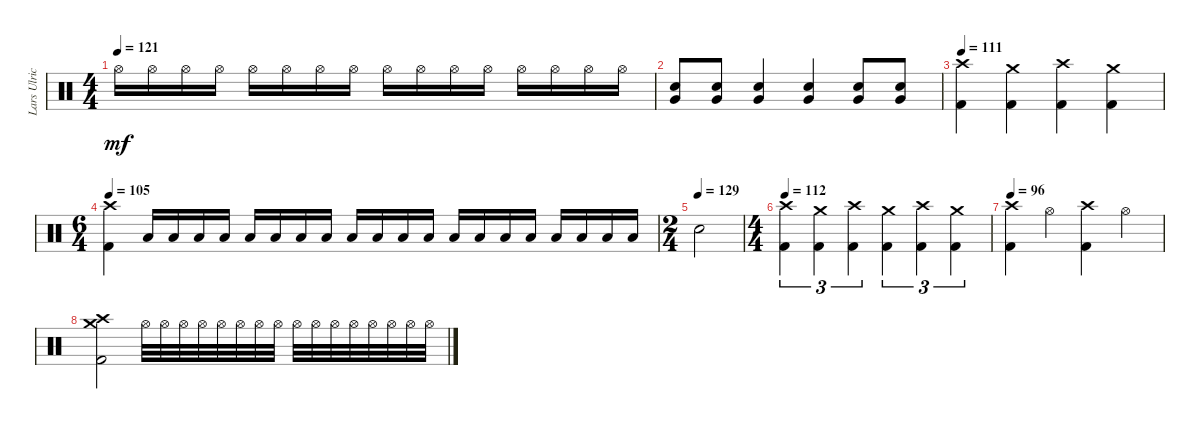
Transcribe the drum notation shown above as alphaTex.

\track ("Lars Ulrich" "Lars Ulric") {instrument percussion}
\staff {score}
\articulation defaults
\ts (4 4)
\tempo 121
\clef neutral
\ks c "Hi-Hat (open)".16{dy mf} "Hi-Hat (open)".16 "Hi-Hat (open)".16 "Hi-Hat (open)".16 "Hi-Hat (open)".16 "Hi-Hat (open)".16 "Hi-Hat (open)".16 "Hi-Hat (open)".16 "Hi-Hat (open)".16 "Hi-Hat (open)".16 "Hi-Hat (open)".16 "Hi-Hat (open)".16 "Hi-Hat (open)".16 "Hi-Hat (open)".16 "Hi-Hat (open)".16 "Hi-Hat (open)".16
|
("Snare (hit) 2" "Very Low Tom (hit)").8 ("Snare (hit) 2" "Very Low Tom (hit)").8 ("Snare (hit) 2" "Very Low Tom (hit)").4 ("Snare (hit) 2" "Very Low Tom (hit)").4 ("Very Low Tom (hit)" "Snare (hit) 2").8 ("Very Low Tom (hit)" "Snare (hit) 2").8 |
\tempo 111
("Kick (hit) 2" "Crash high (hit)").4 ("Kick (hit) 2" "Crash medium (hit)").4 ("Kick (hit) 2" "Crash high (hit)").4 ("Kick (hit) 2" "Crash medium (hit)").4 |
\ts (6 4)
\tempo 105
("Crash high (hit)" "Kick (hit) 2").4 "Low Tom (hit)".16 "Low Tom (hit)".16 "Low Tom (hit)".16 "Low Tom (hit)".16 "Low Tom (hit)".16 "Low Tom (hit)".16 "Low Tom (hit)".16 "Low Tom (hit)".16 "Low Tom (hit)".16 "Low Tom (hit)".16 "Low Tom (hit)".16 "Low Tom (hit)".16 "Low Tom (hit)".16 "Low Tom (hit)".16 "Low Tom (hit)".16 "Low Tom (hit)".16 "Low Tom (hit)".16 "Low Tom (hit)".16 "Low Tom (hit)".16 "Low Tom (hit)".16 |
\ts (2 4)
\tempo (129)
"Snare (hit) 2".2 |
\ts (4 4)
\tempo 112
("Kick (hit) 2" "Crash high (hit)").4{tu (3 2)} ("Kick (hit) 2" "Crash medium (hit)").4{tu (3 2)} ("Kick (hit) 2" "Crash high (hit)").4{tu (3 2)} ("Kick (hit) 2" "Crash medium (hit)").4{tu (3 2)} ("Kick (hit) 2" "Crash high (hit)").4{tu (3 2)} ("Kick (hit) 2" "Crash medium (hit)").4{tu (3 2)} |
\tempo 96
("Crash high (hit)" "Kick (hit) 2").4 "Hi-Hat (open)".4 ("Crash high (hit)" "Kick (hit) 2").4 "Hi-Hat (open)".4 |
("Crash high (hit)" "Crash medium (hit)" "Kick (hit) 2").2 "Hi-Hat (open)".32 "Hi-Hat (open)".32 "Hi-Hat (open)".32 "Hi-Hat (open)".32 "Hi-Hat (open)".32 "Hi-Hat (open)".32 "Hi-Hat (open)".32 "Hi-Hat (open)".32 "Hi-Hat (open)".32 "Hi-Hat (open)".32 "Hi-Hat (open)".32 "Hi-Hat (open)".32 "Hi-Hat (open)".32 "Hi-Hat (open)".32 "Hi-Hat (open)".32 "Hi-Hat (open)".32
